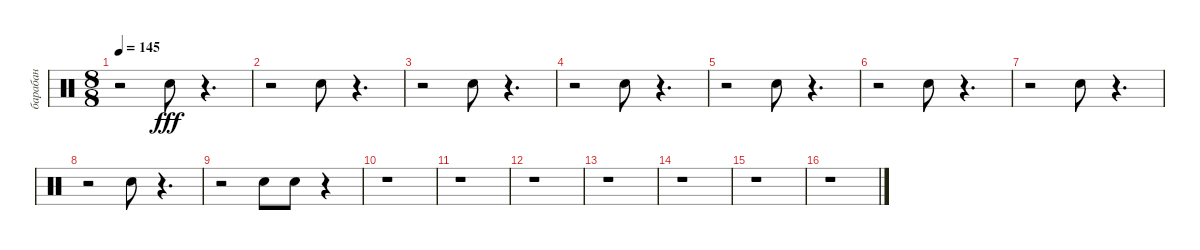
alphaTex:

\track ("барабан" "барабан") {instrument percussion}
\staff {score}
\articulation defaults
\ts (8 8)
\tempo 145
\clef neutral
\ks c
r.2{dy fff} "Snare (hit) 2".8 r.4{d} |
r.2 "Snare (hit) 2".8 r.4{d} |
r.2 "Snare (hit) 2".8 r.4{d} |
r.2 "Snare (hit) 2".8 r.4{d} |
r.2 "Snare (hit) 2".8 r.4{d} |
r.2 "Snare (hit) 2".8 r.4{d} |
r.2 "Snare (hit) 2".8 r.4{d} |
r.2 "Snare (hit) 2".8 r.4{d} |
r.2 "Snare (hit) 2".8 "Snare (hit) 2".8 r.4 |
r.1 |
r.1 |
r.1 |
r.1 |
r.1 |
r.1 |
r.1
